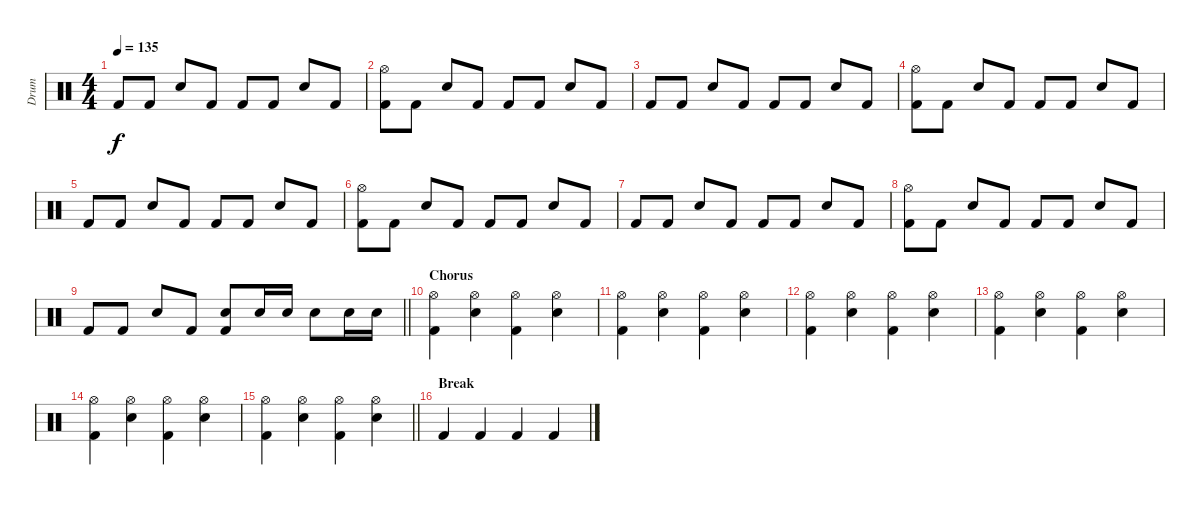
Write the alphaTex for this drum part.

\track ("Drum" "Drum") {instrument percussion}
\staff {score}
\articulation defaults
\ts (4 4)
\tempo 135
\clef neutral
\ks c "Kick (hit) 2".8{dy f} "Kick (hit) 2".8 "Electric Snare (hit)".8 "Kick (hit) 2".8 "Kick (hit) 2".8 "Kick (hit) 2".8 "Electric Snare (hit)".8 "Kick (hit) 2".8
|
("Hi-Hat (open)" "Kick (hit) 2").8 "Kick (hit) 2".8 "Electric Snare (hit)".8 "Kick (hit) 2".8 "Kick (hit) 2".8 "Kick (hit) 2".8 "Electric Snare (hit)".8 "Kick (hit) 2".8 |
"Kick (hit) 2".8 "Kick (hit) 2".8 "Electric Snare (hit)".8 "Kick (hit) 2".8 "Kick (hit) 2".8 "Kick (hit) 2".8 "Electric Snare (hit)".8 "Kick (hit) 2".8 |
("Hi-Hat (open)" "Kick (hit) 2").8 "Kick (hit) 2".8 "Electric Snare (hit)".8 "Kick (hit) 2".8 "Kick (hit) 2".8 "Kick (hit) 2".8 "Electric Snare (hit)".8 "Kick (hit) 2".8 |
"Kick (hit) 2".8 "Kick (hit) 2".8 "Electric Snare (hit)".8 "Kick (hit) 2".8 "Kick (hit) 2".8 "Kick (hit) 2".8 "Electric Snare (hit)".8 "Kick (hit) 2".8 |
("Hi-Hat (open)" "Kick (hit) 2").8 "Kick (hit) 2".8 "Electric Snare (hit)".8 "Kick (hit) 2".8 "Kick (hit) 2".8 "Kick (hit) 2".8 "Electric Snare (hit)".8 "Kick (hit) 2".8 |
"Kick (hit) 2".8 "Kick (hit) 2".8 "Electric Snare (hit)".8 "Kick (hit) 2".8 "Kick (hit) 2".8 "Kick (hit) 2".8 "Electric Snare (hit)".8 "Kick (hit) 2".8 |
("Hi-Hat (open)" "Kick (hit) 2").8 "Kick (hit) 2".8 "Electric Snare (hit)".8 "Kick (hit) 2".8 "Kick (hit) 2".8 "Kick (hit) 2".8 "Electric Snare (hit)".8 "Kick (hit) 2".8 |
\barLineRight lightlight "Kick (hit) 2".8 "Kick (hit) 2".8 "Electric Snare (hit)".8 "Kick (hit) 2".8
("Electric Snare (hit)" "Kick (hit) 2").8 "Electric Snare (hit)".16 "Electric Snare (hit)".16 "Electric Snare (hit)".8 "Electric Snare (hit)".16 "Electric Snare (hit)".16 |
\section ("" "Chorus")
("Hi-Hat (open)" "Kick (hit) 2").4 ("Hi-Hat (open)" "Electric Snare (hit)").4 ("Hi-Hat (open)" "Kick (hit) 2").4 ("Hi-Hat (open)" "Electric Snare (hit)").4 |
("Hi-Hat (open)" "Kick (hit) 2").4 ("Hi-Hat (open)" "Electric Snare (hit)").4 ("Hi-Hat (open)" "Kick (hit) 2").4 ("Hi-Hat (open)" "Electric Snare (hit)").4 |
("Hi-Hat (open)" "Kick (hit) 2").4 ("Hi-Hat (open)" "Electric Snare (hit)").4 ("Hi-Hat (open)" "Kick (hit) 2").4 ("Hi-Hat (open)" "Electric Snare (hit)").4 |
("Hi-Hat (open)" "Kick (hit) 2").4 ("Hi-Hat (open)" "Electric Snare (hit)").4 ("Hi-Hat (open)" "Kick (hit) 2").4 ("Hi-Hat (open)" "Electric Snare (hit)").4 |
("Hi-Hat (open)" "Kick (hit) 2").4 ("Hi-Hat (open)" "Electric Snare (hit)").4 ("Hi-Hat (open)" "Kick (hit) 2").4 ("Hi-Hat (open)" "Electric Snare (hit)").4 |
\barLineRight lightlight
("Hi-Hat (open)" "Kick (hit) 2").4 ("Hi-Hat (open)" "Electric Snare (hit)").4 ("Hi-Hat (open)" "Kick (hit) 2").4 ("Hi-Hat (open)" "Electric Snare (hit)").4 |
\section ("" "Break")
"Kick (hit) 2".4 "Kick (hit) 2".4 "Kick (hit) 2".4 "Kick (hit) 2".4
